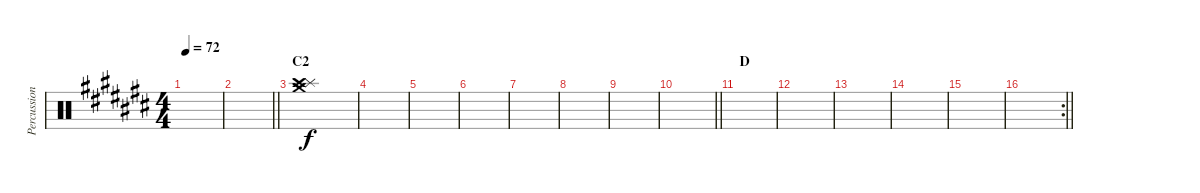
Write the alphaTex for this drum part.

\track ("Percussion" "Percussion") {instrument percussion}
\staff {score}
\articulation defaults
\ts (4 4)
\tempo 72
\clef neutral
\ks c#
|
\barLineRight lightlight
|
\section ("" "C2")
("Splash (hit)" "Crash high (hit)" "Crash medium (hit)").1 |
|
|
|
|
|
|
\barLineRight lightlight
|
\section ("" "D")
|
|
|
|
|
\rc 2
\barLineRight lightlight
